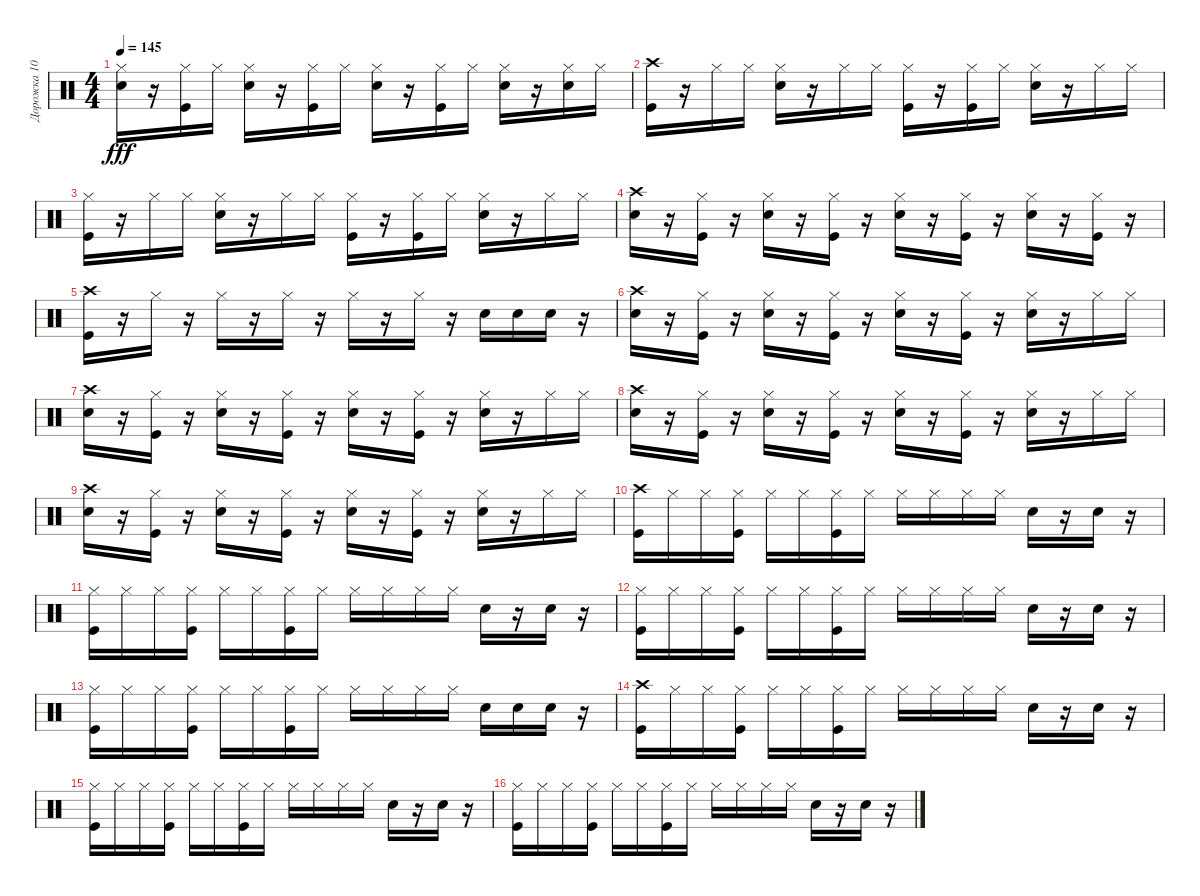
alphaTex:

\track ("Дорожка 10" "Дорожка 10") {instrument percussion}
\staff {score}
\articulation defaults
\ts (4 4)
\tempo 145
\clef neutral
\ks c
("Hi-Hat (closed)" "Electric Snare (hit)").16{dy fff} r.16 ("Kick (hit)" "Hi-Hat (closed)").16 "Hi-Hat (closed)".16 ("Electric Snare (hit)" "Hi-Hat (closed)").16 r.16 ("Hi-Hat (closed)" "Kick (hit)").16 "Hi-Hat (closed)".16 ("Electric Snare (hit)" "Hi-Hat (closed)").16 r.16 ("Kick (hit)" "Hi-Hat (closed)").16 "Hi-Hat (closed)".16 ("Hi-Hat (closed)" "Electric Snare (hit)").16 r.16 ("Hi-Hat (closed)" "Electric Snare (hit)").16 "Hi-Hat (closed)".16 |
("Kick (hit)" "Crash high (hit)").16 r.16 "Hi-Hat (closed)".16 "Hi-Hat (closed)".16 ("Hi-Hat (closed)" "Electric Snare (hit)").16 r.16 "Hi-Hat (closed)".16 "Hi-Hat (closed)".16 ("Kick (hit)" "Hi-Hat (closed)").16 r.16 ("Kick (hit)" "Hi-Hat (closed)").16 "Hi-Hat (closed)".16 ("Electric Snare (hit)" "Hi-Hat (closed)").16 r.16 "Hi-Hat (closed)".16 "Hi-Hat (closed)".16 |
("Kick (hit)" "Hi-Hat (closed)").16 r.16 "Hi-Hat (closed)".16 "Hi-Hat (closed)".16 ("Hi-Hat (closed)" "Electric Snare (hit)").16 r.16 "Hi-Hat (closed)".16 "Hi-Hat (closed)".16 ("Hi-Hat (closed)" "Kick (hit)").16 r.16 ("Kick (hit)" "Hi-Hat (closed)").16 "Hi-Hat (closed)".16 ("Electric Snare (hit)" "Hi-Hat (closed)").16 r.16 "Hi-Hat (closed)".16 "Hi-Hat (closed)".16 |
("Crash high (hit)" "Electric Snare (hit)").16 r.16 ("Kick (hit)" "Hi-Hat (closed)").16 r.16 ("Electric Snare (hit)" "Hi-Hat (closed)").16 r.16 ("Kick (hit)" "Hi-Hat (closed)").16 r.16 ("Electric Snare (hit)" "Hi-Hat (closed)").16 r.16 ("Hi-Hat (closed)" "Kick (hit)").16 r.16 ("Electric Snare (hit)" "Hi-Hat (closed)").16 r.16 ("Hi-Hat (closed)" "Kick (hit)").16 r.16 |
("Crash high (hit)" "Kick (hit)").16 r.16 "Hi-Hat (closed)".16 r.16 "Hi-Hat (closed)".16 r.16 "Hi-Hat (closed)".16 r.16 "Hi-Hat (closed)".16 r.16 "Hi-Hat (closed)".16 r.16 "Electric Snare (hit)".16 "Electric Snare (hit)".16 "Electric Snare (hit)".16 r.16 |
("Crash high (hit)" "Electric Snare (hit)").16 r.16 ("Hi-Hat (closed)" "Kick (hit)").16 r.16 ("Hi-Hat (closed)" "Electric Snare (hit)").16 r.16 ("Kick (hit)" "Hi-Hat (closed)").16 r.16 ("Electric Snare (hit)" "Hi-Hat (closed)").16 r.16 ("Kick (hit)" "Hi-Hat (closed)").16 r.16 ("Hi-Hat (closed)" "Electric Snare (hit)").16 r.16 "Hi-Hat (closed)".16 "Hi-Hat (closed)".16 |
("Electric Snare (hit)" "Crash high (hit)").16 r.16 ("Kick (hit)" "Hi-Hat (closed)").16 r.16 ("Electric Snare (hit)" "Hi-Hat (closed)").16 r.16 ("Hi-Hat (closed)" "Kick (hit)").16 r.16 ("Electric Snare (hit)" "Hi-Hat (closed)").16 r.16 ("Hi-Hat (closed)" "Kick (hit)").16 r.16 ("Electric Snare (hit)" "Hi-Hat (closed)").16 r.16 "Hi-Hat (closed)".16 "Hi-Hat (closed)".16 |
("Electric Snare (hit)" "Crash high (hit)").16 r.16 ("Kick (hit)" "Hi-Hat (closed)").16 r.16 ("Electric Snare (hit)" "Hi-Hat (closed)").16 r.16 ("Kick (hit)" "Hi-Hat (closed)").16 r.16 ("Hi-Hat (closed)" "Electric Snare (hit)").16 r.16 ("Kick (hit)" "Hi-Hat (closed)").16 r.16 ("Electric Snare (hit)" "Hi-Hat (closed)").16 r.16 "Hi-Hat (closed)".16 "Hi-Hat (closed)".16 |
("Electric Snare (hit)" "Crash high (hit)").16 r.16 ("Kick (hit)" "Hi-Hat (closed)").16 r.16 ("Electric Snare (hit)" "Hi-Hat (closed)").16 r.16 ("Hi-Hat (closed)" "Kick (hit)").16 r.16 ("Hi-Hat (closed)" "Electric Snare (hit)").16 r.16 ("Kick (hit)" "Hi-Hat (closed)").16 r.16 ("Hi-Hat (closed)" "Electric Snare (hit)").16 r.16 "Hi-Hat (closed)".16 "Hi-Hat (closed)".16 |
("Crash high (hit)" "Kick (hit)").16 "Hi-Hat (closed)".16 "Hi-Hat (closed)".16 ("Kick (hit)" "Hi-Hat (closed)").16 "Hi-Hat (closed)".16 "Hi-Hat (closed)".16 ("Hi-Hat (closed)" "Kick (hit)").16 "Hi-Hat (closed)".16 "Hi-Hat (closed)".16 "Hi-Hat (closed)".16 "Hi-Hat (closed)".16 "Hi-Hat (closed)".16 "Electric Snare (hit)".16 r.16 "Electric Snare (hit)".16 r.16 |
("Kick (hit)" "Hi-Hat (closed)").16 "Hi-Hat (closed)".16 "Hi-Hat (closed)".16 ("Hi-Hat (closed)" "Kick (hit)").16 "Hi-Hat (closed)".16 "Hi-Hat (closed)".16 ("Kick (hit)" "Hi-Hat (closed)").16 "Hi-Hat (closed)".16 "Hi-Hat (closed)".16 "Hi-Hat (closed)".16 "Hi-Hat (closed)".16 "Hi-Hat (closed)".16 "Electric Snare (hit)".16 r.16 "Electric Snare (hit)".16 r.16 |
("Kick (hit)" "Hi-Hat (closed)").16 "Hi-Hat (closed)".16 "Hi-Hat (closed)".16 ("Hi-Hat (closed)" "Kick (hit)").16 "Hi-Hat (closed)".16 "Hi-Hat (closed)".16 ("Hi-Hat (closed)" "Kick (hit)").16 "Hi-Hat (closed)".16 "Hi-Hat (closed)".16 "Hi-Hat (closed)".16 "Hi-Hat (closed)".16 "Hi-Hat (closed)".16 "Electric Snare (hit)".16 r.16 "Electric Snare (hit)".16 r.16 |
("Kick (hit)" "Hi-Hat (closed)").16 "Hi-Hat (closed)".16 "Hi-Hat (closed)".16 ("Hi-Hat (closed)" "Kick (hit)").16 "Hi-Hat (closed)".16 "Hi-Hat (closed)".16 ("Hi-Hat (closed)" "Kick (hit)").16 "Hi-Hat (closed)".16 "Hi-Hat (closed)".16 "Hi-Hat (closed)".16 "Hi-Hat (closed)".16 "Hi-Hat (closed)".16 "Electric Snare (hit)".16 "Electric Snare (hit)".16 "Electric Snare (hit)".16 r.16 |
("Crash high (hit)" "Kick (hit)").16 "Hi-Hat (closed)".16 "Hi-Hat (closed)".16 ("Hi-Hat (closed)" "Kick (hit)").16 "Hi-Hat (closed)".16 "Hi-Hat (closed)".16 ("Hi-Hat (closed)" "Kick (hit)").16 "Hi-Hat (closed)".16 "Hi-Hat (closed)".16 "Hi-Hat (closed)".16 "Hi-Hat (closed)".16 "Hi-Hat (closed)".16 "Electric Snare (hit)".16 r.16 "Electric Snare (hit)".16 r.16 |
("Hi-Hat (closed)" "Kick (hit)").16 "Hi-Hat (closed)".16 "Hi-Hat (closed)".16 ("Hi-Hat (closed)" "Kick (hit)").16 "Hi-Hat (closed)".16 "Hi-Hat (closed)".16 ("Kick (hit)" "Hi-Hat (closed)").16 "Hi-Hat (closed)".16 "Hi-Hat (closed)".16 "Hi-Hat (closed)".16 "Hi-Hat (closed)".16 "Hi-Hat (closed)".16 "Electric Snare (hit)".16 r.16 "Electric Snare (hit)".16 r.16 |
("Hi-Hat (closed)" "Kick (hit)").16 "Hi-Hat (closed)".16 "Hi-Hat (closed)".16 ("Hi-Hat (closed)" "Kick (hit)").16 "Hi-Hat (closed)".16 "Hi-Hat (closed)".16 ("Hi-Hat (closed)" "Kick (hit)").16 "Hi-Hat (closed)".16 "Hi-Hat (closed)".16 "Hi-Hat (closed)".16 "Hi-Hat (closed)".16 "Hi-Hat (closed)".16 "Electric Snare (hit)".16 r.16 "Electric Snare (hit)".16 r.16
